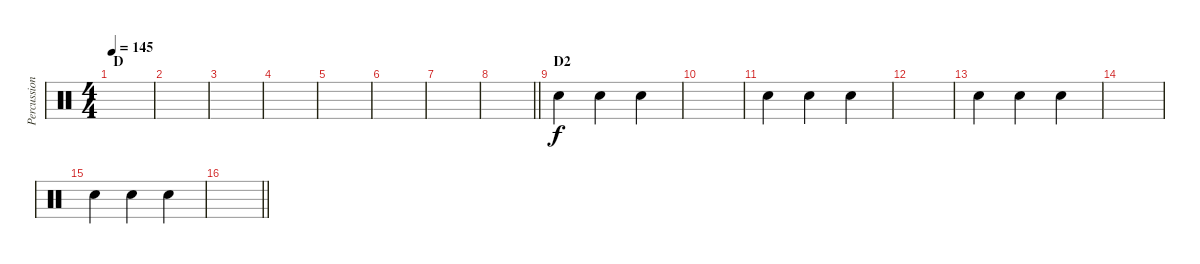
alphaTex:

\track ("Percussion" "Percussion") {instrument percussion}
\staff {score}
\articulation defaults
\ts (4 4)
\section ("" "D")
\tempo 145
\clef neutral
\ks c
|
|
|
|
|
|
|
\barLineRight lightlight
|
\section ("" "D2")
"Hand Clap (hit)".4 "Hand Clap (hit)".4 "Hand Clap (hit)".4 |
|
"Hand Clap (hit)".4 "Hand Clap (hit)".4{beam merge} "Hand Clap (hit)".4 |
|
"Hand Clap (hit)".4 "Hand Clap (hit)".4 "Hand Clap (hit)".4 |
|
"Hand Clap (hit)".4 "Hand Clap (hit)".4 "Hand Clap (hit)".4 |
\barLineRight lightlight
